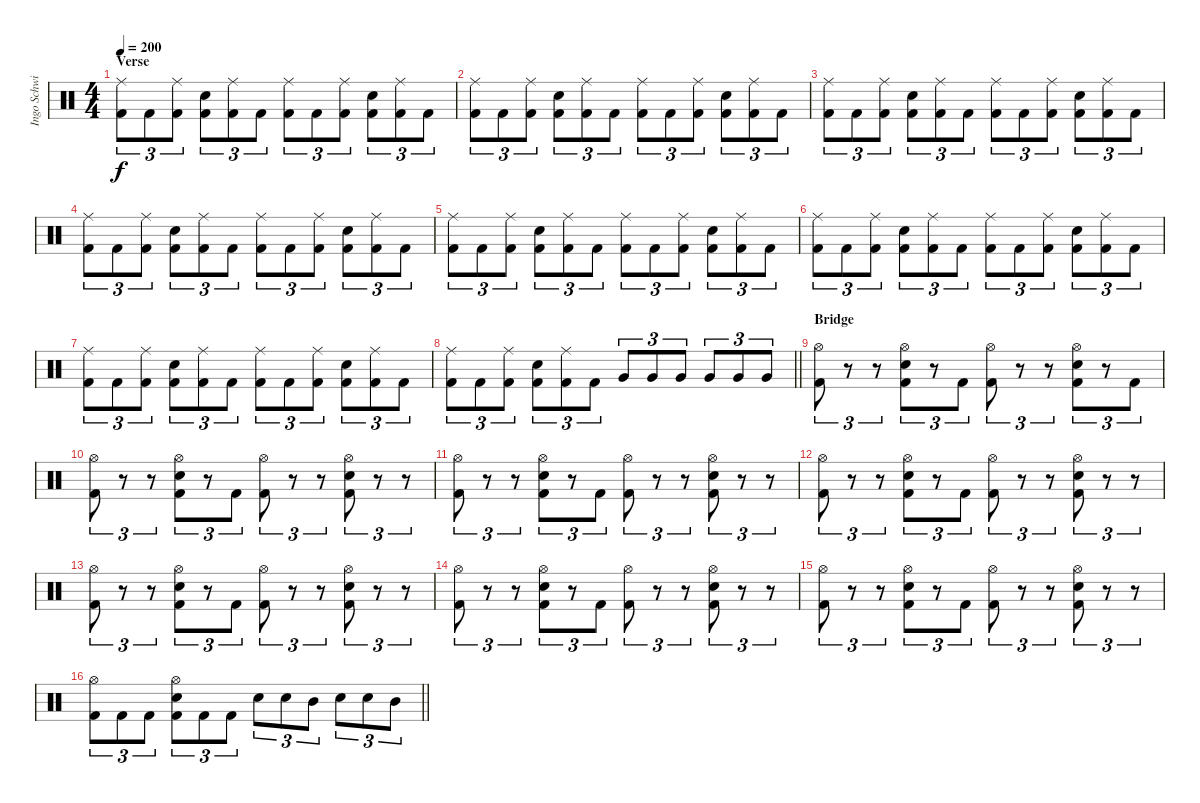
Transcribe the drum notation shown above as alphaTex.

\track ("Ingo Schwichtenberg" "Ingo Schwi") {instrument percussion}
\staff {score}
\articulation defaults
\ts (4 4)
\section ("" "Verse")
\tempo 200
\clef neutral
\ks c
("Ride (middle)" "Kick (hit) 2").8{tu (3 2) dy f} "Kick (hit) 2".8{tu (3 2)} ("Ride (middle)" "Kick (hit) 2").8{tu (3 2)} ("Snare (hit) 2" "Kick (hit) 2").8{tu (3 2)} ("Ride (middle)" "Kick (hit) 2").8{tu (3 2)} "Kick (hit) 2".8{tu (3 2)} ("Ride (middle)" "Kick (hit) 2").8{tu (3 2)} "Kick (hit) 2".8{tu (3 2)} ("Ride (middle)" "Kick (hit) 2").8{tu (3 2)} ("Snare (hit) 2" "Kick (hit) 2").8{tu (3 2)} ("Ride (middle)" "Kick (hit) 2").8{tu (3 2)} "Kick (hit) 2".8{tu (3 2)} |
("Ride (middle)" "Kick (hit) 2").8{tu (3 2)} "Kick (hit) 2".8{tu (3 2)} ("Ride (middle)" "Kick (hit) 2").8{tu (3 2)} ("Snare (hit) 2" "Kick (hit) 2").8{tu (3 2)} ("Ride (middle)" "Kick (hit) 2").8{tu (3 2)} "Kick (hit) 2".8{tu (3 2)} ("Ride (middle)" "Kick (hit) 2").8{tu (3 2)} "Kick (hit) 2".8{tu (3 2)} ("Ride (middle)" "Kick (hit) 2").8{tu (3 2)} ("Snare (hit) 2" "Kick (hit) 2").8{tu (3 2)} ("Ride (middle)" "Kick (hit) 2").8{tu (3 2)} "Kick (hit) 2".8{tu (3 2)} |
("Ride (middle)" "Kick (hit) 2").8{tu (3 2)} "Kick (hit) 2".8{tu (3 2)} ("Ride (middle)" "Kick (hit) 2").8{tu (3 2)} ("Snare (hit) 2" "Kick (hit) 2").8{tu (3 2)} ("Ride (middle)" "Kick (hit) 2").8{tu (3 2)} "Kick (hit) 2".8{tu (3 2)} ("Ride (middle)" "Kick (hit) 2").8{tu (3 2)} "Kick (hit) 2".8{tu (3 2)} ("Ride (middle)" "Kick (hit) 2").8{tu (3 2)} ("Snare (hit) 2" "Kick (hit) 2").8{tu (3 2)} ("Ride (middle)" "Kick (hit) 2").8{tu (3 2)} "Kick (hit) 2".8{tu (3 2)} |
("Ride (middle)" "Kick (hit) 2").8{tu (3 2)} "Kick (hit) 2".8{tu (3 2)} ("Ride (middle)" "Kick (hit) 2").8{tu (3 2)} ("Snare (hit) 2" "Kick (hit) 2").8{tu (3 2)} ("Ride (middle)" "Kick (hit) 2").8{tu (3 2)} "Kick (hit) 2".8{tu (3 2)} ("Ride (middle)" "Kick (hit) 2").8{tu (3 2)} "Kick (hit) 2".8{tu (3 2)} ("Ride (middle)" "Kick (hit) 2").8{tu (3 2)} ("Snare (hit) 2" "Kick (hit) 2").8{tu (3 2)} ("Ride (middle)" "Kick (hit) 2").8{tu (3 2)} "Kick (hit) 2".8{tu (3 2)} |
("Ride (middle)" "Kick (hit) 2").8{tu (3 2)} "Kick (hit) 2".8{tu (3 2)} ("Ride (middle)" "Kick (hit) 2").8{tu (3 2)} ("Snare (hit) 2" "Kick (hit) 2").8{tu (3 2)} ("Ride (middle)" "Kick (hit) 2").8{tu (3 2)} "Kick (hit) 2".8{tu (3 2)} ("Ride (middle)" "Kick (hit) 2").8{tu (3 2)} "Kick (hit) 2".8{tu (3 2)} ("Ride (middle)" "Kick (hit) 2").8{tu (3 2)} ("Snare (hit) 2" "Kick (hit) 2").8{tu (3 2)} ("Ride (middle)" "Kick (hit) 2").8{tu (3 2)} "Kick (hit) 2".8{tu (3 2)} |
("Ride (middle)" "Kick (hit) 2").8{tu (3 2)} "Kick (hit) 2".8{tu (3 2)} ("Ride (middle)" "Kick (hit) 2").8{tu (3 2)} ("Snare (hit) 2" "Kick (hit) 2").8{tu (3 2)} ("Ride (middle)" "Kick (hit) 2").8{tu (3 2)} "Kick (hit) 2".8{tu (3 2)} ("Ride (middle)" "Kick (hit) 2").8{tu (3 2)} "Kick (hit) 2".8{tu (3 2)} ("Ride (middle)" "Kick (hit) 2").8{tu (3 2)} ("Snare (hit) 2" "Kick (hit) 2").8{tu (3 2)} ("Ride (middle)" "Kick (hit) 2").8{tu (3 2)} "Kick (hit) 2".8{tu (3 2)} |
("Ride (middle)" "Kick (hit) 2").8{tu (3 2)} "Kick (hit) 2".8{tu (3 2)} ("Ride (middle)" "Kick (hit) 2").8{tu (3 2)} ("Snare (hit) 2" "Kick (hit) 2").8{tu (3 2)} ("Ride (middle)" "Kick (hit) 2").8{tu (3 2)} "Kick (hit) 2".8{tu (3 2)} ("Ride (middle)" "Kick (hit) 2").8{tu (3 2)} "Kick (hit) 2".8{tu (3 2)} ("Ride (middle)" "Kick (hit) 2").8{tu (3 2)} ("Snare (hit) 2" "Kick (hit) 2").8{tu (3 2)} ("Ride (middle)" "Kick (hit) 2").8{tu (3 2)} "Kick (hit) 2".8{tu (3 2)} |
\barLineRight lightlight
("Ride (middle)" "Kick (hit) 2").8{tu (3 2)} "Kick (hit) 2".8{tu (3 2)} ("Ride (middle)" "Kick (hit) 2").8{tu (3 2)} ("Snare (hit) 2" "Kick (hit) 2").8{tu (3 2)} ("Ride (middle)" "Kick (hit) 2").8{tu (3 2)} "Kick (hit) 2".8{tu (3 2)} "Very Low Tom (hit)".8{tu (3 2)} "Very Low Tom (hit)".8{tu (3 2)} "Very Low Tom (hit)".8{tu (3 2)} "Very Low Tom (hit)".8{tu (3 2)} "Very Low Tom (hit)".8{tu (3 2)} "Very Low Tom (hit)".8{tu (3 2)} |
\section ("" "Bridge")
("Hi-Hat (open)" "Kick (hit) 2").8{tu (3 2)} r.8{tu (3 2)} r.8{tu (3 2)} ("Hi-Hat (open)" "Snare (hit) 2" "Kick (hit) 2").8{tu (3 2)} r.8{tu (3 2)} "Kick (hit) 2".8{tu (3 2)} ("Hi-Hat (open)" "Kick (hit) 2").8{tu (3 2)} r.8{tu (3 2)} r.8{tu (3 2)} ("Hi-Hat (open)" "Snare (hit) 2" "Kick (hit) 2").8{tu (3 2)} r.8{tu (3 2)} "Kick (hit) 2".8{tu (3 2)} |
("Hi-Hat (open)" "Kick (hit) 2").8{tu (3 2)} r.8{tu (3 2)} r.8{tu (3 2)} ("Hi-Hat (open)" "Snare (hit) 2" "Kick (hit) 2").8{tu (3 2)} r.8{tu (3 2)} "Kick (hit) 2".8{tu (3 2)} ("Hi-Hat (open)" "Kick (hit) 2").8{tu (3 2)} r.8{tu (3 2)} r.8{tu (3 2)} ("Hi-Hat (open)" "Snare (hit) 2" "Kick (hit) 2").8{tu (3 2)} r.8{tu (3 2)} r.8{tu (3 2)} |
("Hi-Hat (open)" "Kick (hit) 2").8{tu (3 2)} r.8{tu (3 2)} r.8{tu (3 2)} ("Hi-Hat (open)" "Snare (hit) 2" "Kick (hit) 2").8{tu (3 2)} r.8{tu (3 2)} "Kick (hit) 2".8{tu (3 2)} ("Hi-Hat (open)" "Kick (hit) 2").8{tu (3 2)} r.8{tu (3 2)} r.8{tu (3 2)} ("Hi-Hat (open)" "Snare (hit) 2" "Kick (hit) 2").8{tu (3 2)} r.8{tu (3 2)} r.8{tu (3 2)} |
("Hi-Hat (open)" "Kick (hit) 2").8{tu (3 2)} r.8{tu (3 2)} r.8{tu (3 2)} ("Hi-Hat (open)" "Snare (hit) 2" "Kick (hit) 2").8{tu (3 2)} r.8{tu (3 2)} "Kick (hit) 2".8{tu (3 2)} ("Hi-Hat (open)" "Kick (hit) 2").8{tu (3 2)} r.8{tu (3 2)} r.8{tu (3 2)} ("Hi-Hat (open)" "Snare (hit) 2" "Kick (hit) 2").8{tu (3 2)} r.8{tu (3 2)} r.8{tu (3 2)} |
("Hi-Hat (open)" "Kick (hit) 2").8{tu (3 2)} r.8{tu (3 2)} r.8{tu (3 2)} ("Hi-Hat (open)" "Snare (hit) 2" "Kick (hit) 2").8{tu (3 2)} r.8{tu (3 2)} "Kick (hit) 2".8{tu (3 2)} ("Hi-Hat (open)" "Kick (hit) 2").8{tu (3 2)} r.8{tu (3 2)} r.8{tu (3 2)} ("Hi-Hat (open)" "Snare (hit) 2" "Kick (hit) 2").8{tu (3 2)} r.8{tu (3 2)} r.8{tu (3 2)} |
("Hi-Hat (open)" "Kick (hit) 2").8{tu (3 2)} r.8{tu (3 2)} r.8{tu (3 2)} ("Hi-Hat (open)" "Snare (hit) 2" "Kick (hit) 2").8{tu (3 2)} r.8{tu (3 2)} "Kick (hit) 2".8{tu (3 2)} ("Hi-Hat (open)" "Kick (hit) 2").8{tu (3 2)} r.8{tu (3 2)} r.8{tu (3 2)} ("Hi-Hat (open)" "Snare (hit) 2" "Kick (hit) 2").8{tu (3 2)} r.8{tu (3 2)} r.8{tu (3 2)} |
("Hi-Hat (open)" "Kick (hit) 2").8{tu (3 2)} r.8{tu (3 2)} r.8{tu (3 2)} ("Hi-Hat (open)" "Snare (hit) 2" "Kick (hit) 2").8{tu (3 2)} r.8{tu (3 2)} "Kick (hit) 2".8{tu (3 2)} ("Hi-Hat (open)" "Kick (hit) 2").8{tu (3 2)} r.8{tu (3 2)} r.8{tu (3 2)} ("Hi-Hat (open)" "Snare (hit) 2" "Kick (hit) 2").8{tu (3 2)} r.8{tu (3 2)} r.8{tu (3 2)} |
\barLineRight lightlight
("Hi-Hat (open)" "Kick (hit) 2").8{tu (3 2)} "Kick (hit) 2".8{tu (3 2)} "Kick (hit) 2".8{tu (3 2)} ("Hi-Hat (open)" "Snare (hit) 2" "Kick (hit) 2").8{tu (3 2)} "Kick (hit) 2".8{tu (3 2)} "Kick (hit) 2".8{tu (3 2)} "Snare (hit) 2".8{tu (3 2)} "Snare (hit) 2".8{tu (3 2)} "Mid Tom (hit)".8{tu (3 2)} "Snare (hit) 2".8{tu (3 2)} "Snare (hit) 2".8{tu (3 2)} "Mid Tom (hit)".8{tu (3 2)}
